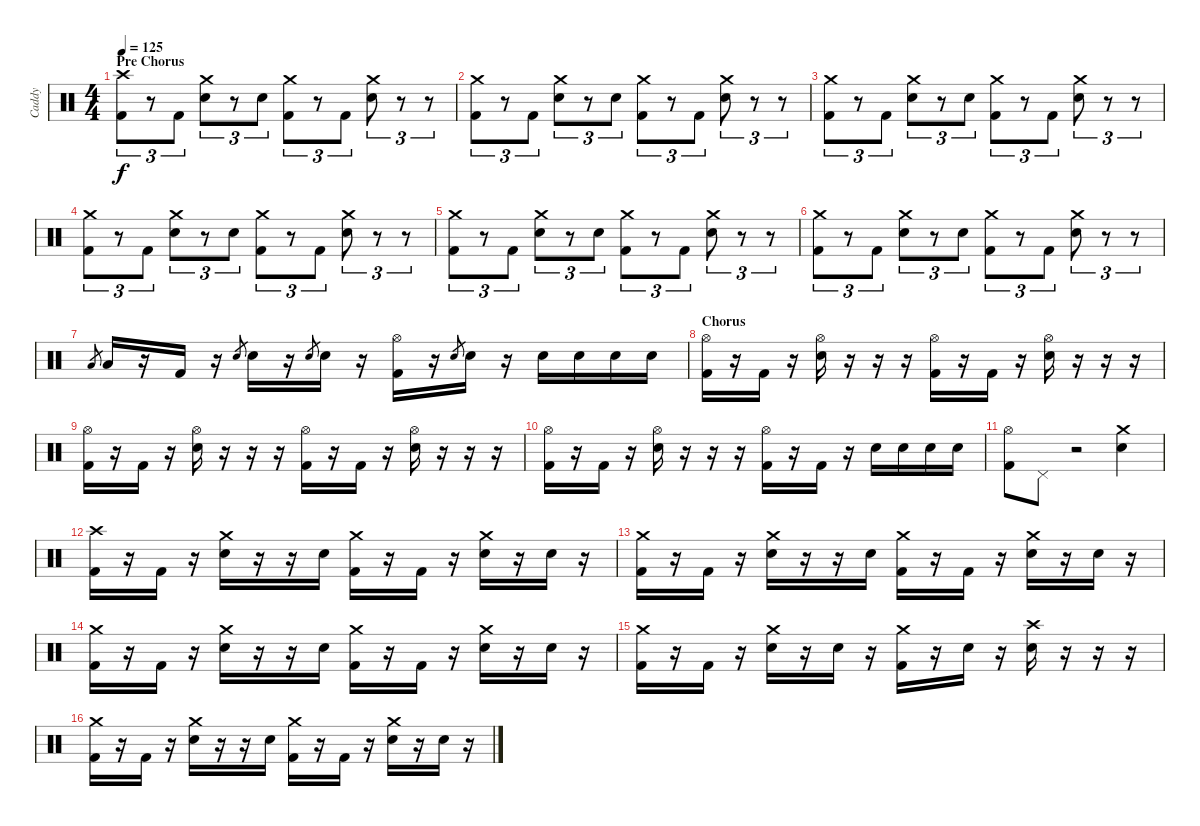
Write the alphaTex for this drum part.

\track ("Caddy" "Caddy") {instrument percussion}
\staff {score}
\articulation defaults
\ts (4 4)
\section ("" "Pre Chorus")
\tempo 125
\clef neutral
\ks c
("Crash high (hit)" "Kick (hit) 2").8{tu (3 2) dy f} r.8{tu (3 2)} "Kick (hit) 2".8{tu (3 2)} ("Crash medium (hit)" "Electric Snare (hit)").8{tu (3 2)} r.8{tu (3 2)} "Electric Snare (hit)".8{tu (3 2)} ("Crash medium (hit)" "Kick (hit) 2").8{tu (3 2)} r.8{tu (3 2)} "Kick (hit) 2".8{tu (3 2)} ("Crash medium (hit)" "Electric Snare (hit)").8{tu (3 2)} r.8{tu (3 2)} r.8{tu (3 2)} |
("Crash medium (hit)" "Kick (hit) 2").8{tu (3 2)} r.8{tu (3 2)} "Kick (hit) 2".8{tu (3 2)} ("Crash medium (hit)" "Electric Snare (hit)").8{tu (3 2)} r.8{tu (3 2)} "Electric Snare (hit)".8{tu (3 2)} ("Crash medium (hit)" "Kick (hit) 2").8{tu (3 2)} r.8{tu (3 2)} "Kick (hit) 2".8{tu (3 2)} ("Crash medium (hit)" "Electric Snare (hit)").8{tu (3 2)} r.8{tu (3 2)} r.8{tu (3 2)} |
("Crash medium (hit)" "Kick (hit) 2").8{tu (3 2)} r.8{tu (3 2)} "Kick (hit) 2".8{tu (3 2)} ("Crash medium (hit)" "Electric Snare (hit)").8{tu (3 2)} r.8{tu (3 2)} "Electric Snare (hit)".8{tu (3 2)} ("Crash medium (hit)" "Kick (hit) 2").8{tu (3 2)} r.8{tu (3 2)} "Kick (hit) 2".8{tu (3 2)} ("Crash medium (hit)" "Electric Snare (hit)").8{tu (3 2)} r.8{tu (3 2)} r.8{tu (3 2)} |
("Crash medium (hit)" "Kick (hit) 2").8{tu (3 2)} r.8{tu (3 2)} "Kick (hit) 2".8{tu (3 2)} ("Crash medium (hit)" "Electric Snare (hit)").8{tu (3 2)} r.8{tu (3 2)} "Electric Snare (hit)".8{tu (3 2)} ("Crash medium (hit)" "Kick (hit) 2").8{tu (3 2)} r.8{tu (3 2)} "Kick (hit) 2".8{tu (3 2)} ("Crash medium (hit)" "Electric Snare (hit)").8{tu (3 2)} r.8{tu (3 2)} r.8{tu (3 2)} |
("Crash medium (hit)" "Kick (hit) 2").8{tu (3 2)} r.8{tu (3 2)} "Kick (hit) 2".8{tu (3 2)} ("Crash medium (hit)" "Electric Snare (hit)").8{tu (3 2)} r.8{tu (3 2)} "Electric Snare (hit)".8{tu (3 2)} ("Crash medium (hit)" "Kick (hit) 2").8{tu (3 2)} r.8{tu (3 2)} "Kick (hit) 2".8{tu (3 2)} ("Crash medium (hit)" "Electric Snare (hit)").8{tu (3 2)} r.8{tu (3 2)} r.8{tu (3 2)} |
("Crash medium (hit)" "Kick (hit) 2").8{tu (3 2)} r.8{tu (3 2)} "Kick (hit) 2".8{tu (3 2)} ("Crash medium (hit)" "Electric Snare (hit)").8{tu (3 2)} r.8{tu (3 2)} "Electric Snare (hit)".8{tu (3 2)} ("Crash medium (hit)" "Kick (hit) 2").8{tu (3 2)} r.8{tu (3 2)} "Kick (hit) 2".8{tu (3 2)} ("Crash medium (hit)" "Electric Snare (hit)").8{tu (3 2)} r.8{tu (3 2)} r.8{tu (3 2)} |
"Low Floor Tom (hit)".8{gr} "Low Floor Tom (hit)".16 r.16 "Kick (hit) 2".16 r.16 "Electric Snare (hit)".8{gr} "Electric Snare (hit)".16 r.16 "Electric Snare (hit)".8{gr} "Electric Snare (hit)".16 r.16 ("Hi-Hat (open)" "Kick (hit) 2").16 r.16 "Electric Snare (hit)".8{gr} "Electric Snare (hit)".16 r.16 "Electric Snare (hit)".16 "Electric Snare (hit)".16 "Electric Snare (hit)".16 "Electric Snare (hit)".16 |
\section ("" "Chorus")
("Hi-Hat (open)" "Kick (hit) 2").16 r.16 "Kick (hit) 2".16 r.16 ("Hi-Hat (open)" "Electric Snare (hit)").16 r.16 r.16 r.16 ("Hi-Hat (open)" "Kick (hit) 2").16 r.16 "Kick (hit) 2".16 r.16 ("Hi-Hat (open)" "Electric Snare (hit)").16 r.16 r.16 r.16 |
("Hi-Hat (open)" "Kick (hit) 2").16 r.16 "Kick (hit) 2".16 r.16 ("Hi-Hat (open)" "Electric Snare (hit)").16 r.16 r.16 r.16 ("Hi-Hat (open)" "Kick (hit) 2").16 r.16 "Kick (hit) 2".16 r.16 ("Hi-Hat (open)" "Electric Snare (hit)").16 r.16 r.16 r.16 |
("Hi-Hat (open)" "Kick (hit) 2").16 r.16 "Kick (hit) 2".16 r.16 ("Hi-Hat (open)" "Electric Snare (hit)").16 r.16 r.16 r.16 ("Hi-Hat (open)" "Kick (hit) 2").16 r.16 "Kick (hit) 2".16 r.16 "Electric Snare (hit)".16 "Electric Snare (hit)".16 "Electric Snare (hit)".16 "Electric Snare (hit)".16 |
("Hi-Hat (open)" "Kick (hit) 2").8 "Pedal Hi-Hat (hit)".8 r.2 ("Crash medium (hit)" "Electric Snare (hit)").4 |
("Crash high (hit)" "Kick (hit) 2").16 r.16 "Kick (hit) 2".16 r.16 ("Crash medium (hit)" "Electric Snare (hit)").16 r.16 r.16 "Electric Snare (hit)".16 ("Crash medium (hit)" "Kick (hit) 2").16 r.16 "Kick (hit) 2".16 r.16 ("Crash medium (hit)" "Electric Snare (hit)").16 r.16 "Electric Snare (hit)".16 r.16 |
("Crash medium (hit)" "Kick (hit) 2").16 r.16 "Kick (hit) 2".16 r.16 ("Crash medium (hit)" "Electric Snare (hit)").16 r.16 r.16 "Electric Snare (hit)".16 ("Crash medium (hit)" "Kick (hit) 2").16 r.16 "Kick (hit) 2".16 r.16 ("Crash medium (hit)" "Electric Snare (hit)").16 r.16 "Electric Snare (hit)".16 r.16 |
("Crash medium (hit)" "Kick (hit) 2").16 r.16 "Kick (hit) 2".16 r.16 ("Crash medium (hit)" "Electric Snare (hit)").16 r.16 r.16 "Electric Snare (hit)".16 ("Crash medium (hit)" "Kick (hit) 2").16 r.16 "Kick (hit) 2".16 r.16 ("Crash medium (hit)" "Electric Snare (hit)").16 r.16 "Electric Snare (hit)".16 r.16 |
("Crash medium (hit)" "Kick (hit) 2").16 r.16 "Kick (hit) 2".16 r.16 ("Crash medium (hit)" "Electric Snare (hit)").16 r.16 "Electric Snare (hit)".16 r.16 ("Crash medium (hit)" "Kick (hit) 2").16 r.16 "Electric Snare (hit)".16 r.16 ("Crash high (hit)" "Electric Snare (hit)").16 r.16 r.16 r.16 |
("Crash medium (hit)" "Kick (hit) 2").16 r.16 "Kick (hit) 2".16 r.16 ("Crash medium (hit)" "Electric Snare (hit)").16 r.16 r.16 "Electric Snare (hit)".16 ("Crash medium (hit)" "Kick (hit) 2").16 r.16 "Kick (hit) 2".16 r.16 ("Crash medium (hit)" "Electric Snare (hit)").16 r.16 "Electric Snare (hit)".16 r.16
